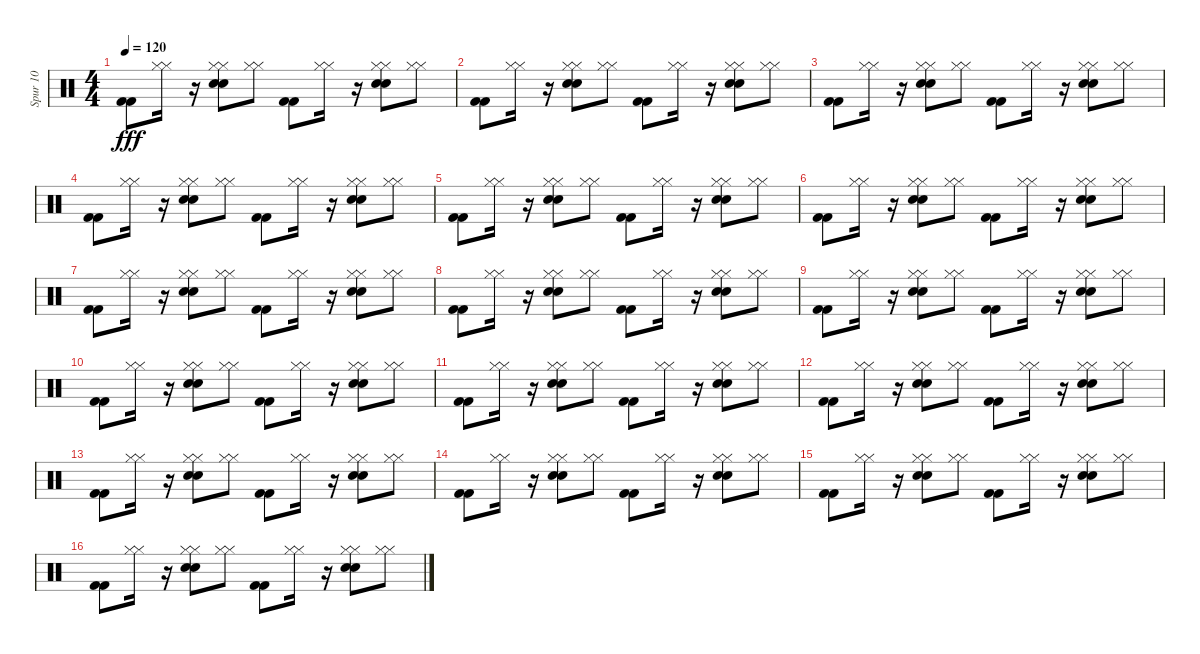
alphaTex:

\track ("Spur 10" "Spur 10") {instrument percussion}
\staff {score}
\articulation defaults
\ts (4 4)
\tempo 120
\clef neutral
\ks c
("Kick (hit) 2" "Kick (hit) 2").8{dy fff} ("Hi-Hat (closed)" "Hi-Hat (closed)").16 r.16 ("Snare (hit) 2" "Hi-Hat (closed)" "Snare (hit) 2" "Hi-Hat (closed)").8 ("Hi-Hat (closed)" "Hi-Hat (closed)").8 ("Kick (hit) 2" "Kick (hit) 2").8 ("Hi-Hat (closed)" "Hi-Hat (closed)").16 r.16 ("Hi-Hat (closed)" "Snare (hit) 2" "Hi-Hat (closed)" "Snare (hit) 2").8 ("Hi-Hat (closed)" "Hi-Hat (closed)").8 |
("Kick (hit) 2" "Kick (hit) 2").8 ("Hi-Hat (closed)" "Hi-Hat (closed)").16 r.16 ("Snare (hit) 2" "Snare (hit) 2" "Hi-Hat (closed)" "Hi-Hat (closed)").8 ("Hi-Hat (closed)" "Hi-Hat (closed)").8 ("Kick (hit) 2" "Kick (hit) 2").8 ("Hi-Hat (closed)" "Hi-Hat (closed)").16 r.16 ("Hi-Hat (closed)" "Snare (hit) 2" "Hi-Hat (closed)" "Snare (hit) 2").8 ("Hi-Hat (closed)" "Hi-Hat (closed)").8 |
("Kick (hit) 2" "Kick (hit) 2").8 ("Hi-Hat (closed)" "Hi-Hat (closed)").16 r.16 ("Hi-Hat (closed)" "Snare (hit) 2" "Hi-Hat (closed)" "Snare (hit) 2").8 ("Hi-Hat (closed)" "Hi-Hat (closed)").8 ("Kick (hit) 2" "Kick (hit) 2").8 ("Hi-Hat (closed)" "Hi-Hat (closed)").16 r.16 ("Snare (hit) 2" "Hi-Hat (closed)" "Snare (hit) 2" "Hi-Hat (closed)").8 ("Hi-Hat (closed)" "Hi-Hat (closed)").8 |
("Kick (hit) 2" "Kick (hit) 2").8 ("Hi-Hat (closed)" "Hi-Hat (closed)").16 r.16 ("Hi-Hat (closed)" "Hi-Hat (closed)" "Snare (hit) 2" "Snare (hit) 2").8 ("Hi-Hat (closed)" "Hi-Hat (closed)").8 ("Kick (hit) 2" "Kick (hit) 2").8 ("Hi-Hat (closed)" "Hi-Hat (closed)").16 r.16 ("Hi-Hat (closed)" "Snare (hit) 2" "Hi-Hat (closed)" "Snare (hit) 2").8 ("Hi-Hat (closed)" "Hi-Hat (closed)").8 |
("Kick (hit) 2" "Kick (hit) 2").8 ("Hi-Hat (closed)" "Hi-Hat (closed)").16 r.16 ("Snare (hit) 2" "Hi-Hat (closed)" "Snare (hit) 2" "Hi-Hat (closed)").8 ("Hi-Hat (closed)" "Hi-Hat (closed)").8 ("Kick (hit) 2" "Kick (hit) 2").8 ("Hi-Hat (closed)" "Hi-Hat (closed)").16 r.16 ("Snare (hit) 2" "Snare (hit) 2" "Hi-Hat (closed)" "Hi-Hat (closed)").8 ("Hi-Hat (closed)" "Hi-Hat (closed)").8 |
("Kick (hit) 2" "Kick (hit) 2").8 ("Hi-Hat (closed)" "Hi-Hat (closed)").16 r.16 ("Hi-Hat (closed)" "Snare (hit) 2" "Hi-Hat (closed)" "Snare (hit) 2").8 ("Hi-Hat (closed)" "Hi-Hat (closed)").8 ("Kick (hit) 2" "Kick (hit) 2").8 ("Hi-Hat (closed)" "Hi-Hat (closed)").16 r.16 ("Snare (hit) 2" "Snare (hit) 2" "Hi-Hat (closed)" "Hi-Hat (closed)").8 ("Hi-Hat (closed)" "Hi-Hat (closed)").8 |
("Kick (hit) 2" "Kick (hit) 2").8 ("Hi-Hat (closed)" "Hi-Hat (closed)").16 r.16 ("Snare (hit) 2" "Hi-Hat (closed)" "Snare (hit) 2" "Hi-Hat (closed)").8 ("Hi-Hat (closed)" "Hi-Hat (closed)").8 ("Kick (hit) 2" "Kick (hit) 2").8 ("Hi-Hat (closed)" "Hi-Hat (closed)").16 r.16 ("Snare (hit) 2" "Hi-Hat (closed)" "Snare (hit) 2" "Hi-Hat (closed)").8 ("Hi-Hat (closed)" "Hi-Hat (closed)").8 |
("Kick (hit) 2" "Kick (hit) 2").8 ("Hi-Hat (closed)" "Hi-Hat (closed)").16 r.16 ("Snare (hit) 2" "Snare (hit) 2" "Hi-Hat (closed)" "Hi-Hat (closed)").8 ("Hi-Hat (closed)" "Hi-Hat (closed)").8 ("Kick (hit) 2" "Kick (hit) 2").8 ("Hi-Hat (closed)" "Hi-Hat (closed)").16 r.16 ("Hi-Hat (closed)" "Snare (hit) 2" "Hi-Hat (closed)" "Snare (hit) 2").8 ("Hi-Hat (closed)" "Hi-Hat (closed)").8 |
("Kick (hit) 2" "Kick (hit) 2").8 ("Hi-Hat (closed)" "Hi-Hat (closed)").16 r.16 ("Hi-Hat (closed)" "Hi-Hat (closed)" "Snare (hit) 2" "Snare (hit) 2").8 ("Hi-Hat (closed)" "Hi-Hat (closed)").8 ("Kick (hit) 2" "Kick (hit) 2").8 ("Hi-Hat (closed)" "Hi-Hat (closed)").16 r.16 ("Snare (hit) 2" "Hi-Hat (closed)" "Snare (hit) 2" "Hi-Hat (closed)").8 ("Hi-Hat (closed)" "Hi-Hat (closed)").8 |
("Kick (hit) 2" "Kick (hit) 2").8 ("Hi-Hat (closed)" "Hi-Hat (closed)").16 r.16 ("Hi-Hat (closed)" "Snare (hit) 2" "Hi-Hat (closed)" "Snare (hit) 2").8 ("Hi-Hat (closed)" "Hi-Hat (closed)").8 ("Kick (hit) 2" "Kick (hit) 2").8 ("Hi-Hat (closed)" "Hi-Hat (closed)").16 r.16 ("Hi-Hat (closed)" "Hi-Hat (closed)" "Snare (hit) 2" "Snare (hit) 2").8 ("Hi-Hat (closed)" "Hi-Hat (closed)").8 |
("Kick (hit) 2" "Kick (hit) 2").8 ("Hi-Hat (closed)" "Hi-Hat (closed)").16 r.16 ("Hi-Hat (closed)" "Snare (hit) 2" "Hi-Hat (closed)" "Snare (hit) 2").8 ("Hi-Hat (closed)" "Hi-Hat (closed)").8 ("Kick (hit) 2" "Kick (hit) 2").8 ("Hi-Hat (closed)" "Hi-Hat (closed)").16 r.16 ("Snare (hit) 2" "Snare (hit) 2" "Hi-Hat (closed)" "Hi-Hat (closed)").8 ("Hi-Hat (closed)" "Hi-Hat (closed)").8 |
("Kick (hit) 2" "Kick (hit) 2").8 ("Hi-Hat (closed)" "Hi-Hat (closed)").16 r.16 ("Hi-Hat (closed)" "Snare (hit) 2" "Hi-Hat (closed)" "Snare (hit) 2").8 ("Hi-Hat (closed)" "Hi-Hat (closed)").8 ("Kick (hit) 2" "Kick (hit) 2").8 ("Hi-Hat (closed)" "Hi-Hat (closed)").16 r.16 ("Hi-Hat (closed)" "Snare (hit) 2" "Hi-Hat (closed)" "Snare (hit) 2").8 ("Hi-Hat (closed)" "Hi-Hat (closed)").8 |
("Kick (hit) 2" "Kick (hit) 2").8 ("Hi-Hat (closed)" "Hi-Hat (closed)").16 r.16 ("Snare (hit) 2" "Snare (hit) 2" "Hi-Hat (closed)" "Hi-Hat (closed)").8 ("Hi-Hat (closed)" "Hi-Hat (closed)").8 ("Kick (hit) 2" "Kick (hit) 2").8 ("Hi-Hat (closed)" "Hi-Hat (closed)").16 r.16 ("Snare (hit) 2" "Snare (hit) 2" "Hi-Hat (closed)" "Hi-Hat (closed)").8 ("Hi-Hat (closed)" "Hi-Hat (closed)").8 |
("Kick (hit) 2" "Kick (hit) 2").8 ("Hi-Hat (closed)" "Hi-Hat (closed)").16 r.16 ("Hi-Hat (closed)" "Snare (hit) 2" "Hi-Hat (closed)" "Snare (hit) 2").8 ("Hi-Hat (closed)" "Hi-Hat (closed)").8 ("Kick (hit) 2" "Kick (hit) 2").8 ("Hi-Hat (closed)" "Hi-Hat (closed)").16 r.16 ("Snare (hit) 2" "Hi-Hat (closed)" "Snare (hit) 2" "Hi-Hat (closed)").8 ("Hi-Hat (closed)" "Hi-Hat (closed)").8 |
("Kick (hit) 2" "Kick (hit) 2").8 ("Hi-Hat (closed)" "Hi-Hat (closed)").16 r.16 ("Hi-Hat (closed)" "Hi-Hat (closed)" "Snare (hit) 2" "Snare (hit) 2").8 ("Hi-Hat (closed)" "Hi-Hat (closed)").8 ("Kick (hit) 2" "Kick (hit) 2").8 ("Hi-Hat (closed)" "Hi-Hat (closed)").16 r.16 ("Hi-Hat (closed)" "Snare (hit) 2" "Hi-Hat (closed)" "Snare (hit) 2").8 ("Hi-Hat (closed)" "Hi-Hat (closed)").8 |
("Kick (hit) 2" "Kick (hit) 2").8 ("Hi-Hat (closed)" "Hi-Hat (closed)").16 r.16 ("Hi-Hat (closed)" "Hi-Hat (closed)" "Snare (hit) 2" "Snare (hit) 2").8 ("Hi-Hat (closed)" "Hi-Hat (closed)").8 ("Kick (hit) 2" "Kick (hit) 2").8 ("Hi-Hat (closed)" "Hi-Hat (closed)").16 r.16 ("Hi-Hat (closed)" "Snare (hit) 2" "Hi-Hat (closed)" "Snare (hit) 2").8 ("Hi-Hat (closed)" "Hi-Hat (closed)").8
